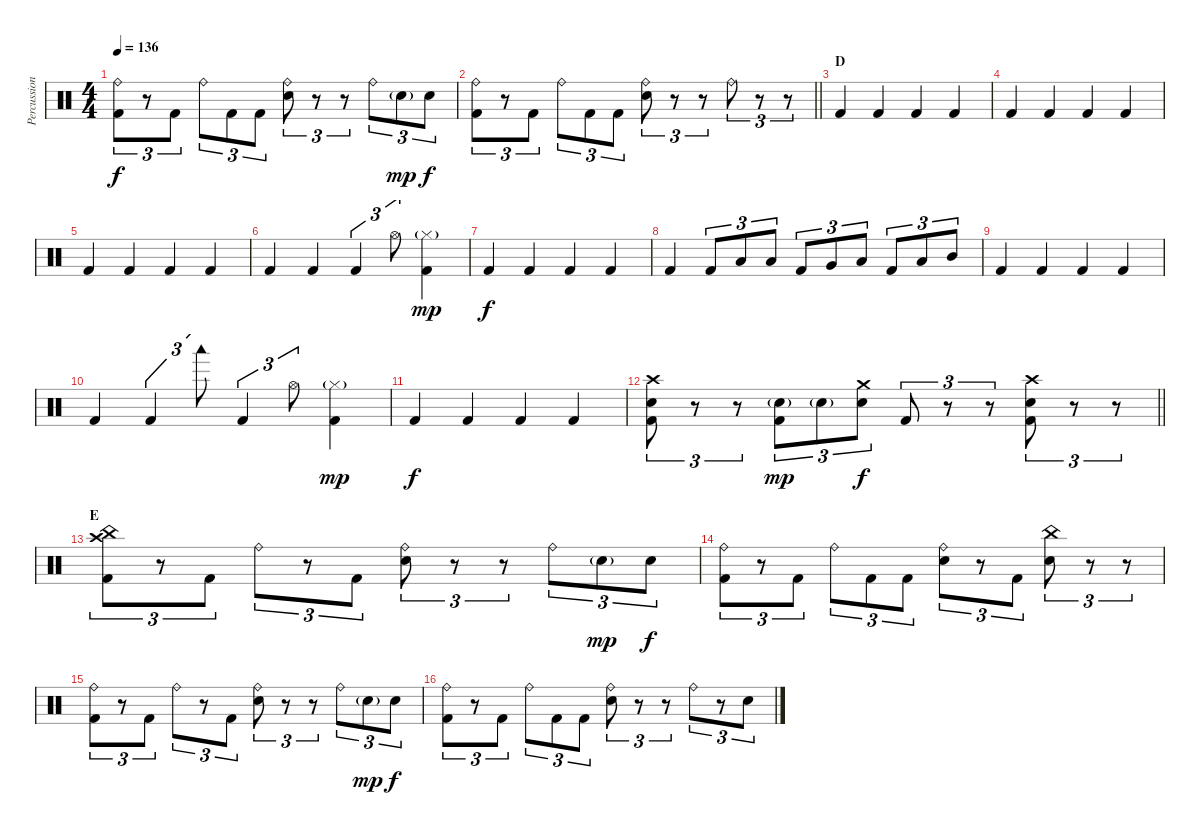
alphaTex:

\track ("Percussion" "Percussion") {instrument percussion}
\staff {score}
\articulation defaults
\ts (4 4)
\tempo 136
\clef neutral
\ks c
("Ride (bell)" "Kick (hit) 2").8{tu (3 2) dy f} r.8{tu (3 2)} "Kick (hit) 2".8{tu (3 2)} "Ride (bell)".8{tu (3 2)} "Kick (hit) 2".8{tu (3 2)} "Kick (hit) 2".8{tu (3 2)} ("Ride (bell)" "Electric Snare (hit)").8{tu (3 2)} r.8{tu (3 2)} r.8{tu (3 2)} "Ride (bell)".8{tu (3 2)} "Electric Snare (hit)"{g}.8{tu (3 2) dy mp} "Electric Snare (hit)".8{tu (3 2) dy f} |
\barLineRight lightlight
("Ride (bell)" "Kick (hit) 2").8{tu (3 2)} r.8{tu (3 2)} "Kick (hit) 2".8{tu (3 2)} "Ride (bell)".8{tu (3 2)} "Kick (hit) 2".8{tu (3 2)} "Kick (hit) 2".8{tu (3 2)} ("Ride (bell)" "Electric Snare (hit)").8{tu (3 2)} r.8{tu (3 2)} r.8{tu (3 2)} "Ride (bell)".8{tu (3 2)} r.8{tu (3 2)} r.8{tu (3 2)} |
\section ("" "D")
"Kick (hit) 2".4 "Kick (hit) 2".4 "Kick (hit) 2".4 "Kick (hit) 2".4 |
"Kick (hit) 2".4 "Kick (hit) 2".4 "Kick (hit) 2".4 "Kick (hit) 2".4 |
"Kick (hit) 2".4 "Kick (hit) 2".4 "Kick (hit) 2".4 "Kick (hit) 2".4 |
"Kick (hit) 2".4 "Kick (hit) 2".4 "Kick (hit) 2".4{tu (3 2)} "Hi-Hat (open)".8{tu (3 2)} ("Hi-Hat (closed)"{g} "Kick (hit) 2").4{dy mp} |
"Kick (hit) 2".4{dy f} "Kick (hit) 2".4 "Kick (hit) 2".4 "Kick (hit) 2".4 |
"Kick (hit) 2".4 "Kick (hit) 2".8{tu (3 2)} "Low Tom (hit)".8{tu (3 2)} "Low Floor Tom (hit)".8{tu (3 2)} "Kick (hit) 2".8{tu (3 2)} "Very Low Tom (hit)".8{tu (3 2)} "Low Tom (hit)".8{tu (3 2)} "Kick (hit) 2".8{tu (3 2)} "Low Tom (hit)".8{tu (3 2)} "Mid Tom (hit)".8{tu (3 2)} |
"Kick (hit) 2".4 "Kick (hit) 2".4 "Kick (hit) 2".4 "Kick (hit) 2".4 |
"Kick (hit) 2".4 "Kick (hit) 2".4{tu (3 2)} "Woodblock low (hit)".8{tu (3 2)} "Kick (hit) 2".4{tu (3 2)} "Hi-Hat (open)".8{tu (3 2)} ("Hi-Hat (closed)"{g} "Kick (hit) 2").4{dy mp} |
"Kick (hit) 2".4{dy f} "Kick (hit) 2".4 "Kick (hit) 2".4 "Kick (hit) 2".4 |
\barLineRight lightlight
("Crash high (hit)" "Electric Snare (hit)" "Kick (hit) 2").8{tu (3 2)} r.8{tu (3 2)} r.8{tu (3 2)} ("Electric Snare (hit)"{g} "Kick (hit) 2").8{tu (3 2) dy mp} "Electric Snare (hit)"{g}.8{tu (3 2)} ("Crash medium (hit)" "Electric Snare (hit)").8{tu (3 2) dy f} "Kick (hit) 2".8{tu (3 2)} r.8{tu (3 2)} r.8{tu (3 2)} ("Crash high (hit)" "Electric Snare (hit)" "Kick (hit) 2").8{tu (3 2)} r.8{tu (3 2)} r.8{tu (3 2)} |
\section ("" "E")
("China (hit)" "Crash high (hit)" "Kick (hit) 2").8{tu (3 2)} r.8{tu (3 2)} "Kick (hit) 2".8{tu (3 2)} "Ride (bell)".8{tu (3 2)} r.8{tu (3 2)} "Kick (hit) 2".8{tu (3 2)} ("Ride (bell)" "Electric Snare (hit)").8{tu (3 2)} r.8{tu (3 2)} r.8{tu (3 2)} "Ride (bell)".8{tu (3 2)} "Electric Snare (hit)"{g}.8{tu (3 2) dy mp} "Electric Snare (hit)".8{tu (3 2) dy f} |
("Ride (bell)" "Kick (hit) 2").8{tu (3 2)} r.8{tu (3 2)} "Kick (hit) 2".8{tu (3 2)} "Ride (bell)".8{tu (3 2)} "Kick (hit) 2".8{tu (3 2)} "Kick (hit) 2".8{tu (3 2)} ("Ride (bell)" "Electric Snare (hit)").8{tu (3 2)} r.8{tu (3 2)} "Kick (hit) 2".8{tu (3 2)} ("China (hit)" "Electric Snare (hit)").8{tu (3 2)} r.8{tu (3 2)} r.8{tu (3 2)} |
("Ride (bell)" "Kick (hit) 2").8{tu (3 2)} r.8{tu (3 2)} "Kick (hit) 2".8{tu (3 2)} "Ride (bell)".8{tu (3 2)} r.8{tu (3 2)} "Kick (hit) 2".8{tu (3 2)} ("Ride (bell)" "Electric Snare (hit)").8{tu (3 2)} r.8{tu (3 2)} r.8{tu (3 2)} "Ride (bell)".8{tu (3 2)} "Electric Snare (hit)"{g}.8{tu (3 2) dy mp} "Electric Snare (hit)".8{tu (3 2) dy f} |
("Ride (bell)" "Kick (hit) 2").8{tu (3 2)} r.8{tu (3 2)} "Kick (hit) 2".8{tu (3 2)} "Ride (bell)".8{tu (3 2)} "Kick (hit) 2".8{tu (3 2)} "Kick (hit) 2".8{tu (3 2)} ("Ride (bell)" "Electric Snare (hit)").8{tu (3 2)} r.8{tu (3 2)} r.8{tu (3 2)} "Ride (bell)".8{tu (3 2)} r.8{tu (3 2)} "Electric Snare (hit)".8{tu (3 2)}
